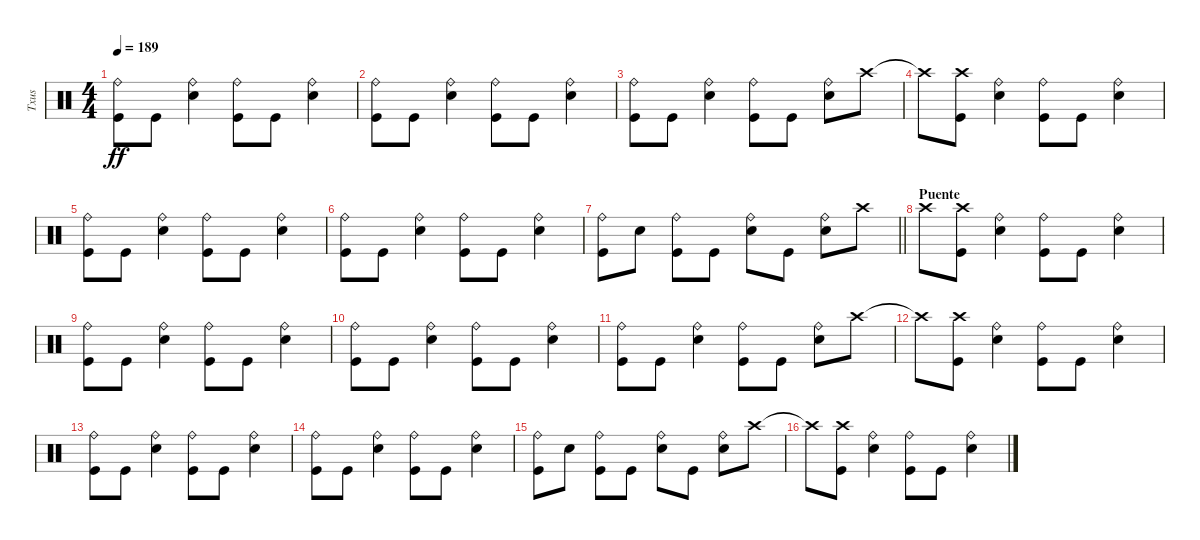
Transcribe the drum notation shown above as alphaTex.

\track ("Txus" "Txus") {instrument percussion}
\staff {score}
\articulation defaults
\ts (4 4)
\tempo 189
\clef neutral
\ks c
("Kick (hit)" "Ride (bell)").8{dy ff} "Kick (hit)".8 ("Ride (bell)" "Snare (hit) 2").4 ("Ride (bell)" "Kick (hit)").8 "Kick (hit)".8 ("Ride (bell)" "Snare (hit) 2").4 |
("Kick (hit)" "Ride (bell)").8 "Kick (hit)".8 ("Ride (bell)" "Snare (hit) 2").4 ("Ride (bell)" "Kick (hit)").8 "Kick (hit)".8 ("Ride (bell)" "Snare (hit) 2").4 |
("Kick (hit)" "Ride (bell)").8 "Kick (hit)".8 ("Ride (bell)" "Snare (hit) 2").4 ("Ride (bell)" "Kick (hit)").8 "Kick (hit)".8 ("Ride (bell)" "Snare (hit) 2").8 "Crash high (hit)".8 |
"Crash high (hit)"{t}.8 ("Kick (hit)" "Crash high (hit)").8 ("Ride (bell)" "Snare (hit) 2").4 ("Ride (bell)" "Kick (hit)").8 "Kick (hit)".8 ("Ride (bell)" "Snare (hit) 2").4 |
("Kick (hit)" "Ride (bell)").8 "Kick (hit)".8 ("Ride (bell)" "Snare (hit) 2").4 ("Ride (bell)" "Kick (hit)").8 "Kick (hit)".8 ("Ride (bell)" "Snare (hit) 2").4 |
("Kick (hit)" "Ride (bell)").8 "Kick (hit)".8 ("Ride (bell)" "Snare (hit) 2").4 ("Ride (bell)" "Kick (hit)").8 "Kick (hit)".8 ("Ride (bell)" "Snare (hit) 2").4 |
\barLineRight lightlight
("Kick (hit)" "Ride (bell)").8 "Snare (hit) 2".8 ("Ride (bell)" "Kick (hit)").8 "Kick (hit)".8 ("Ride (bell)" "Snare (hit) 2").8 "Kick (hit)".8 ("Ride (bell)" "Snare (hit) 2").8 "Crash high (hit)".8 |
\section ("" "Puente")
"Crash high (hit)".8 ("Kick (hit)" "Crash high (hit)").8 ("Ride (bell)" "Snare (hit) 2").4 ("Ride (bell)" "Kick (hit)").8 "Kick (hit)".8 ("Ride (bell)" "Snare (hit) 2").4 |
("Kick (hit)" "Ride (bell)").8 "Kick (hit)".8 ("Ride (bell)" "Snare (hit) 2").4 ("Ride (bell)" "Kick (hit)").8 "Kick (hit)".8 ("Ride (bell)" "Snare (hit) 2").4 |
("Kick (hit)" "Ride (bell)").8 "Kick (hit)".8 ("Ride (bell)" "Snare (hit) 2").4 ("Ride (bell)" "Kick (hit)").8 "Kick (hit)".8 ("Ride (bell)" "Snare (hit) 2").4 |
("Kick (hit)" "Ride (bell)").8 "Kick (hit)".8 ("Ride (bell)" "Snare (hit) 2").4 ("Ride (bell)" "Kick (hit)").8 "Kick (hit)".8 ("Ride (bell)" "Snare (hit) 2").8 "Crash high (hit)".8 |
"Crash high (hit)"{t}.8 ("Kick (hit)" "Crash high (hit)").8 ("Ride (bell)" "Snare (hit) 2").4 ("Ride (bell)" "Kick (hit)").8 "Kick (hit)".8 ("Ride (bell)" "Snare (hit) 2").4 |
("Kick (hit)" "Ride (bell)").8 "Kick (hit)".8 ("Ride (bell)" "Snare (hit) 2").4 ("Ride (bell)" "Kick (hit)").8 "Kick (hit)".8 ("Ride (bell)" "Snare (hit) 2").4 |
("Kick (hit)" "Ride (bell)").8 "Kick (hit)".8 ("Ride (bell)" "Snare (hit) 2").4 ("Ride (bell)" "Kick (hit)").8 "Kick (hit)".8 ("Ride (bell)" "Snare (hit) 2").4 |
("Kick (hit)" "Ride (bell)").8 "Snare (hit) 2".8 ("Ride (bell)" "Kick (hit)").8 "Kick (hit)".8 ("Ride (bell)" "Snare (hit) 2").8 "Kick (hit)".8 ("Ride (bell)" "Snare (hit) 2").8 "Crash high (hit)".8 |
"Crash high (hit)"{t}.8 ("Kick (hit)" "Crash high (hit)").8 ("Ride (bell)" "Snare (hit) 2").4 ("Ride (bell)" "Kick (hit)").8 "Kick (hit)".8 ("Ride (bell)" "Snare (hit) 2").4
